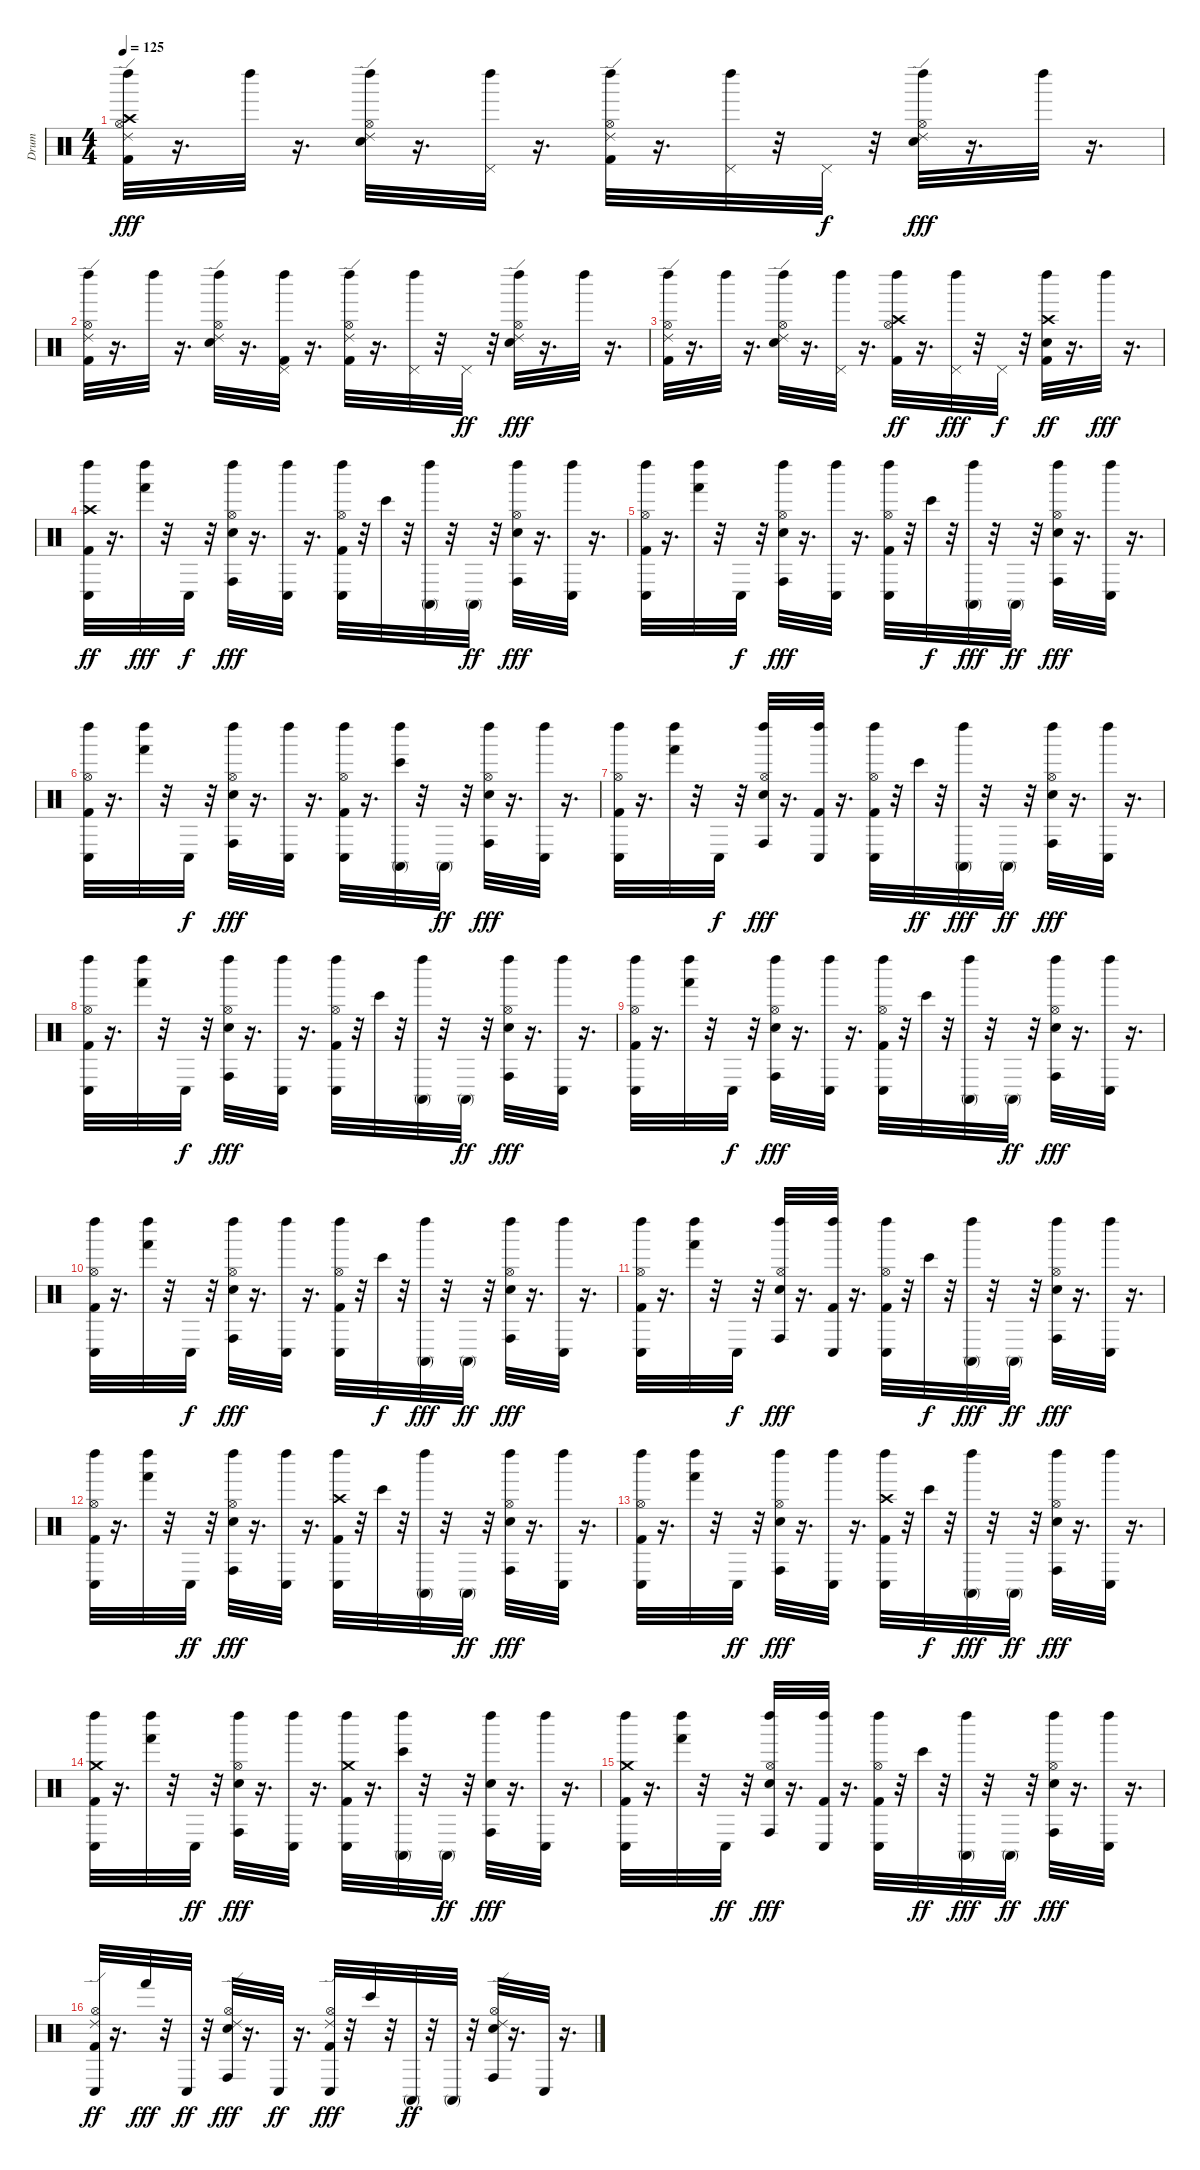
\track ("Drum" "Drum") {instrument percussion}
\staff {score}
\articulation defaults
\ts (4 4)
\tempo 125
\clef neutral
\ks c
("Kick (hit) 2" "Hi-Hat (open)" "Left Maraca (hit)" "Crash high (hit)" "Ride (edge) 2").32{dy fff} r.16{d} "Left Maraca (hit)".32 r.16{d} ("Hi-Hat (open)" "Left Maraca (hit)" "Electric Snare (hit)" "Ride (edge) 2").32 r.16{d} ("Pedal Hi-Hat (hit)" "Left Maraca (hit)").32 r.16{d} ("Kick (hit) 2" "Hi-Hat (open)" "Left Maraca (hit)" "Ride (edge) 2").32 r.16{d} ("Pedal Hi-Hat (hit)" "Left Maraca (hit)").32 r.32 "Pedal Hi-Hat (hit)".32{dy f} r.32 ("Hi-Hat (open)" "Left Maraca (hit)" "Electric Snare (hit)" "Ride (edge) 2").32{dy fff} r.16{d} "Left Maraca (hit)".32 r.16{d} |
("Kick (hit) 2" "Hi-Hat (open)" "Left Maraca (hit)" "Ride (edge) 2").32 r.16{d} "Left Maraca (hit)".32 r.16{d} ("Hi-Hat (open)" "Left Maraca (hit)" "Electric Snare (hit)" "Ride (edge) 2").32 r.16{d} ("Kick (hit) 2" "Pedal Hi-Hat (hit)" "Left Maraca (hit)").32 r.16{d} ("Kick (hit) 2" "Hi-Hat (open)" "Left Maraca (hit)" "Ride (edge) 2").32 r.16{d} ("Pedal Hi-Hat (hit)" "Left Maraca (hit)").32 r.32 "Pedal Hi-Hat (hit)".32{dy ff} r.32 ("Hi-Hat (open)" "Left Maraca (hit)" "Electric Snare (hit)" "Ride (edge) 2").32{dy fff} r.16{d} "Left Maraca (hit)".32 r.16{d} |
("Kick (hit) 2" "Hi-Hat (open)" "Left Maraca (hit)" "Ride (edge) 2").32 r.16{d} "Left Maraca (hit)".32 r.16{d} ("Hi-Hat (open)" "Left Maraca (hit)" "Electric Snare (hit)" "Ride (edge) 2").32 r.16{d} ("Pedal Hi-Hat (hit)" "Left Maraca (hit)").32 r.16{d} ("Kick (hit) 2" "Hi-Hat (open)" "Left Maraca (hit)" "Crash high (hit)").32{dy ff} r.16{d} ("Pedal Hi-Hat (hit)" "Left Maraca (hit)").32{dy fff} r.32 "Pedal Hi-Hat (hit)".32{dy f} r.32 ("Kick (hit) 2" "Left Maraca (hit)" "Electric Snare (hit)" "Crash high (hit)").32{dy ff} r.16{d} "Left Maraca (hit)".32{dy fff} r.16{d} |
("Kick (hit) 2" "Conga low (hit)" "Left Maraca (hit)" "Crash high (hit)").32{dy ff} r.16{d} ("Hand (hit)" "Left Maraca (hit)").32{dy fff} r.32 "Conga low (hit)".32{dy f} r.32 ("Hi-Hat (open)" "Conga high (hit)" "Left Maraca (hit)" "Electric Snare (hit)").32{dy fff} r.16{d} ("Conga low (hit)" "Left Maraca (hit)").32 r.16{d} ("Kick (hit) 2" "Hi-Hat (open)" "Conga low (hit)" "Left Maraca (hit)").32 r.32 "Bongo High (hit)".32 r.32 ("Conga high (mute)" "Left Maraca (hit)").32 r.32 "Conga high (mute)".32{dy ff} r.32 ("Hi-Hat (open)" "Conga high (hit)" "Left Maraca (hit)" "Electric Snare (hit)").32{dy fff} r.16{d} ("Conga low (hit)" "Left Maraca (hit)").32 r.16{d} |
("Kick (hit) 2" "Hi-Hat (open)" "Conga low (hit)" "Left Maraca (hit)").32 r.16{d} ("Hand (hit)" "Left Maraca (hit)").32 r.32 "Conga low (hit)".32{dy f} r.32 ("Hi-Hat (open)" "Conga high (hit)" "Left Maraca (hit)" "Electric Snare (hit)").32{dy fff} r.16{d} ("Conga low (hit)" "Left Maraca (hit)").32 r.16{d} ("Kick (hit) 2" "Hi-Hat (open)" "Conga low (hit)" "Left Maraca (hit)").32 r.32 "Bongo High (hit)".32{dy f} r.32 ("Conga high (mute)" "Left Maraca (hit)").32{dy fff} r.32 "Conga high (mute)".32{dy ff} r.32 ("Hi-Hat (open)" "Conga high (hit)" "Left Maraca (hit)" "Electric Snare (hit)").32{dy fff} r.16{d} ("Conga low (hit)" "Left Maraca (hit)").32 r.16{d} |
("Kick (hit) 2" "Hi-Hat (open)" "Conga low (hit)" "Left Maraca (hit)").32 r.16{d} ("Hand (hit)" "Left Maraca (hit)").32 r.32 "Conga low (hit)".32{dy f} r.32 ("Hi-Hat (open)" "Conga high (hit)" "Left Maraca (hit)" "Electric Snare (hit)").32{dy fff} r.16{d} ("Conga low (hit)" "Left Maraca (hit)").32 r.16{d} ("Kick (hit) 2" "Hi-Hat (open)" "Conga low (hit)" "Left Maraca (hit)").32 r.16{d} ("Bongo High (hit)" "Conga high (mute)" "Left Maraca (hit)").32 r.32 "Conga high (mute)".32{dy ff} r.32 ("Hi-Hat (open)" "Conga high (hit)" "Left Maraca (hit)" "Electric Snare (hit)").32{dy fff} r.16{d} ("Conga low (hit)" "Left Maraca (hit)").32 r.16{d} |
("Kick (hit) 2" "Hi-Hat (open)" "Conga low (hit)" "Left Maraca (hit)").32 r.16{d} ("Hand (hit)" "Left Maraca (hit)").32 r.32 "Conga low (hit)".32{dy f} r.32 ("Hi-Hat (open)" "Conga high (hit)" "Left Maraca (hit)" "Electric Snare (hit)").32{dy fff} r.16{d} ("Kick (hit) 2" "Conga low (hit)" "Left Maraca (hit)").32 r.16{d} ("Kick (hit) 2" "Hi-Hat (open)" "Conga low (hit)" "Left Maraca (hit)").32 r.32 "Bongo High (hit)".32{dy ff} r.32 ("Conga high (mute)" "Left Maraca (hit)").32{dy fff} r.32 "Conga high (mute)".32{dy ff} r.32 ("Hi-Hat (open)" "Conga high (hit)" "Left Maraca (hit)" "Electric Snare (hit)").32{dy fff} r.16{d} ("Conga low (hit)" "Left Maraca (hit)").32 r.16{d} |
("Kick (hit) 2" "Hi-Hat (open)" "Conga low (hit)" "Left Maraca (hit)").32 r.16{d} ("Hand (hit)" "Left Maraca (hit)").32 r.32 "Conga low (hit)".32{dy f} r.32 ("Hi-Hat (open)" "Conga high (hit)" "Left Maraca (hit)" "Electric Snare (hit)").32{dy fff} r.16{d} ("Conga low (hit)" "Left Maraca (hit)").32 r.16{d} ("Kick (hit) 2" "Hi-Hat (open)" "Conga low (hit)" "Left Maraca (hit)").32 r.32 "Bongo High (hit)".32 r.32 ("Conga high (mute)" "Left Maraca (hit)").32 r.32 "Conga high (mute)".32{dy ff} r.32 ("Hi-Hat (open)" "Conga high (hit)" "Left Maraca (hit)" "Electric Snare (hit)").32{dy fff} r.16{d} ("Conga low (hit)" "Left Maraca (hit)").32 r.16{d} |
("Kick (hit) 2" "Hi-Hat (open)" "Conga low (hit)" "Left Maraca (hit)").32 r.16{d} ("Hand (hit)" "Left Maraca (hit)").32 r.32 "Conga low (hit)".32{dy f} r.32 ("Hi-Hat (open)" "Conga high (hit)" "Left Maraca (hit)" "Electric Snare (hit)").32{dy fff} r.16{d} ("Conga low (hit)" "Left Maraca (hit)").32 r.16{d} ("Kick (hit) 2" "Hi-Hat (open)" "Conga low (hit)" "Left Maraca (hit)").32 r.32 "Bongo High (hit)".32 r.32 ("Conga high (mute)" "Left Maraca (hit)").32 r.32 "Conga high (mute)".32{dy ff} r.32 ("Hi-Hat (open)" "Conga high (hit)" "Left Maraca (hit)" "Electric Snare (hit)").32{dy fff} r.16{d} ("Conga low (hit)" "Left Maraca (hit)").32 r.16{d} |
("Kick (hit) 2" "Hi-Hat (open)" "Conga low (hit)" "Left Maraca (hit)").32 r.16{d} ("Hand (hit)" "Left Maraca (hit)").32 r.32 "Conga low (hit)".32{dy f} r.32 ("Hi-Hat (open)" "Conga high (hit)" "Left Maraca (hit)" "Electric Snare (hit)").32{dy fff} r.16{d} ("Conga low (hit)" "Left Maraca (hit)").32 r.16{d} ("Kick (hit) 2" "Hi-Hat (open)" "Conga low (hit)" "Left Maraca (hit)").32 r.32 "Bongo High (hit)".32{dy f} r.32 ("Conga high (mute)" "Left Maraca (hit)").32{dy fff} r.32 "Conga high (mute)".32{dy ff} r.32 ("Hi-Hat (open)" "Conga high (hit)" "Left Maraca (hit)" "Electric Snare (hit)").32{dy fff} r.16{d} ("Conga low (hit)" "Left Maraca (hit)").32 r.16{d} |
("Kick (hit) 2" "Hi-Hat (open)" "Conga low (hit)" "Left Maraca (hit)").32 r.16{d} ("Hand (hit)" "Left Maraca (hit)").32 r.32 "Conga low (hit)".32{dy f} r.32 ("Hi-Hat (open)" "Conga high (hit)" "Left Maraca (hit)" "Electric Snare (hit)").32{dy fff} r.16{d} ("Kick (hit) 2" "Conga low (hit)" "Left Maraca (hit)").32 r.16{d} ("Kick (hit) 2" "Hi-Hat (open)" "Conga low (hit)" "Left Maraca (hit)").32 r.32 "Bongo High (hit)".32{dy f} r.32 ("Conga high (mute)" "Left Maraca (hit)").32{dy fff} r.32 "Conga high (mute)".32{dy ff} r.32 ("Hi-Hat (open)" "Conga high (hit)" "Left Maraca (hit)" "Electric Snare (hit)").32{dy fff} r.16{d} ("Conga low (hit)" "Left Maraca (hit)").32 r.16{d} |
("Kick (hit) 2" "Hi-Hat (open)" "Conga low (hit)" "Left Maraca (hit)").32 r.16{d} ("Hand (hit)" "Left Maraca (hit)").32 r.32 "Conga low (hit)".32{dy ff} r.32 ("Hi-Hat (open)" "Conga high (hit)" "Left Maraca (hit)" "Electric Snare (hit)").32{dy fff} r.16{d} ("Conga low (hit)" "Left Maraca (hit)").32 r.16{d} ("Kick (hit) 2" "Conga low (hit)" "Left Maraca (hit)" "Crash high (hit)").32 r.32 "Bongo High (hit)".32 r.32 ("Conga high (mute)" "Left Maraca (hit)").32 r.32 "Conga high (mute)".32{dy ff} r.32 ("Hi-Hat (open)" "Conga high (hit)" "Left Maraca (hit)" "Electric Snare (hit)").32{dy fff} r.16{d} ("Conga low (hit)" "Left Maraca (hit)").32 r.16{d} |
("Kick (hit) 2" "Hi-Hat (open)" "Conga low (hit)" "Left Maraca (hit)").32 r.16{d} ("Hand (hit)" "Left Maraca (hit)").32 r.32 "Conga low (hit)".32{dy ff} r.32 ("Hi-Hat (open)" "Conga high (hit)" "Left Maraca (hit)" "Electric Snare (hit)").32{dy fff} r.16{d} ("Conga low (hit)" "Left Maraca (hit)").32 r.16{d} ("Kick (hit) 2" "Conga low (hit)" "Left Maraca (hit)" "Crash high (hit)").32 r.32 "Bongo High (hit)".32{dy f} r.32 ("Conga high (mute)" "Left Maraca (hit)").32{dy fff} r.32 "Conga high (mute)".32{dy ff} r.32 ("Hi-Hat (open)" "Conga high (hit)" "Left Maraca (hit)" "Electric Snare (hit)").32{dy fff} r.16{d} ("Conga low (hit)" "Left Maraca (hit)").32 r.16{d} |
("Kick (hit) 2" "Conga low (hit)" "Left Maraca (hit)" "Crash medium (hit)").32 r.16{d} ("Hand (hit)" "Left Maraca (hit)").32 r.32 "Conga low (hit)".32{dy ff} r.32 ("Hi-Hat (open)" "Conga high (hit)" "Left Maraca (hit)" "Electric Snare (hit)").32{dy fff} r.16{d} ("Conga low (hit)" "Left Maraca (hit)").32 r.16{d} ("Kick (hit) 2" "Conga low (hit)" "Left Maraca (hit)" "Crash medium (hit)").32 r.16{d} ("Bongo High (hit)" "Conga high (mute)" "Left Maraca (hit)").32 r.32 "Conga high (mute)".32{dy ff} r.32 ("Conga high (hit)" "Left Maraca (hit)" "Electric Snare (hit)").32{dy fff} r.16{d} ("Conga low (hit)" "Left Maraca (hit)").32 r.16{d} |
("Kick (hit) 2" "Conga low (hit)" "Left Maraca (hit)" "Crash medium (hit)").32 r.16{d} ("Hand (hit)" "Left Maraca (hit)").32 r.32 "Conga low (hit)".32{dy ff} r.32 ("Hi-Hat (open)" "Conga high (hit)" "Left Maraca (hit)" "Electric Snare (hit)").32{dy fff} r.16{d} ("Kick (hit) 2" "Conga low (hit)" "Left Maraca (hit)").32 r.16{d} ("Kick (hit) 2" "Hi-Hat (open)" "Conga low (hit)" "Left Maraca (hit)").32 r.32 "Bongo High (hit)".32{dy ff} r.32 ("Conga high (mute)" "Left Maraca (hit)").32{dy fff} r.32 "Conga high (mute)".32{dy ff} r.32 ("Hi-Hat (open)" "Conga high (hit)" "Left Maraca (hit)" "Electric Snare (hit)").32{dy fff} r.16{d} ("Conga low (hit)" "Left Maraca (hit)").32 r.16{d} |
("Kick (hit) 2" "Hi-Hat (open)" "Conga low (hit)" "Ride (edge) 2").32{dy ff} r.16{d} "Hand (hit)".32{dy fff} r.32 "Conga low (hit)".32{dy ff} r.32 ("Hi-Hat (open)" "Conga high (hit)" "Electric Snare (hit)" "Ride (edge) 2").32{dy fff} r.16{d} "Conga low (hit)".32{dy ff} r.16{d} ("Kick (hit) 2" "Hi-Hat (open)" "Conga low (hit)" "Ride (edge) 2").32{dy fff} r.32 "Bongo High (hit)".32 r.32 "Conga high (mute)".32{dy ff} r.32 "Conga high (mute)".32 r.32 ("Hi-Hat (open)" "Conga high (hit)" "Electric Snare (hit)" "Ride (edge) 2").32 r.16{d} "Conga low (hit)".32 r.16{d}
